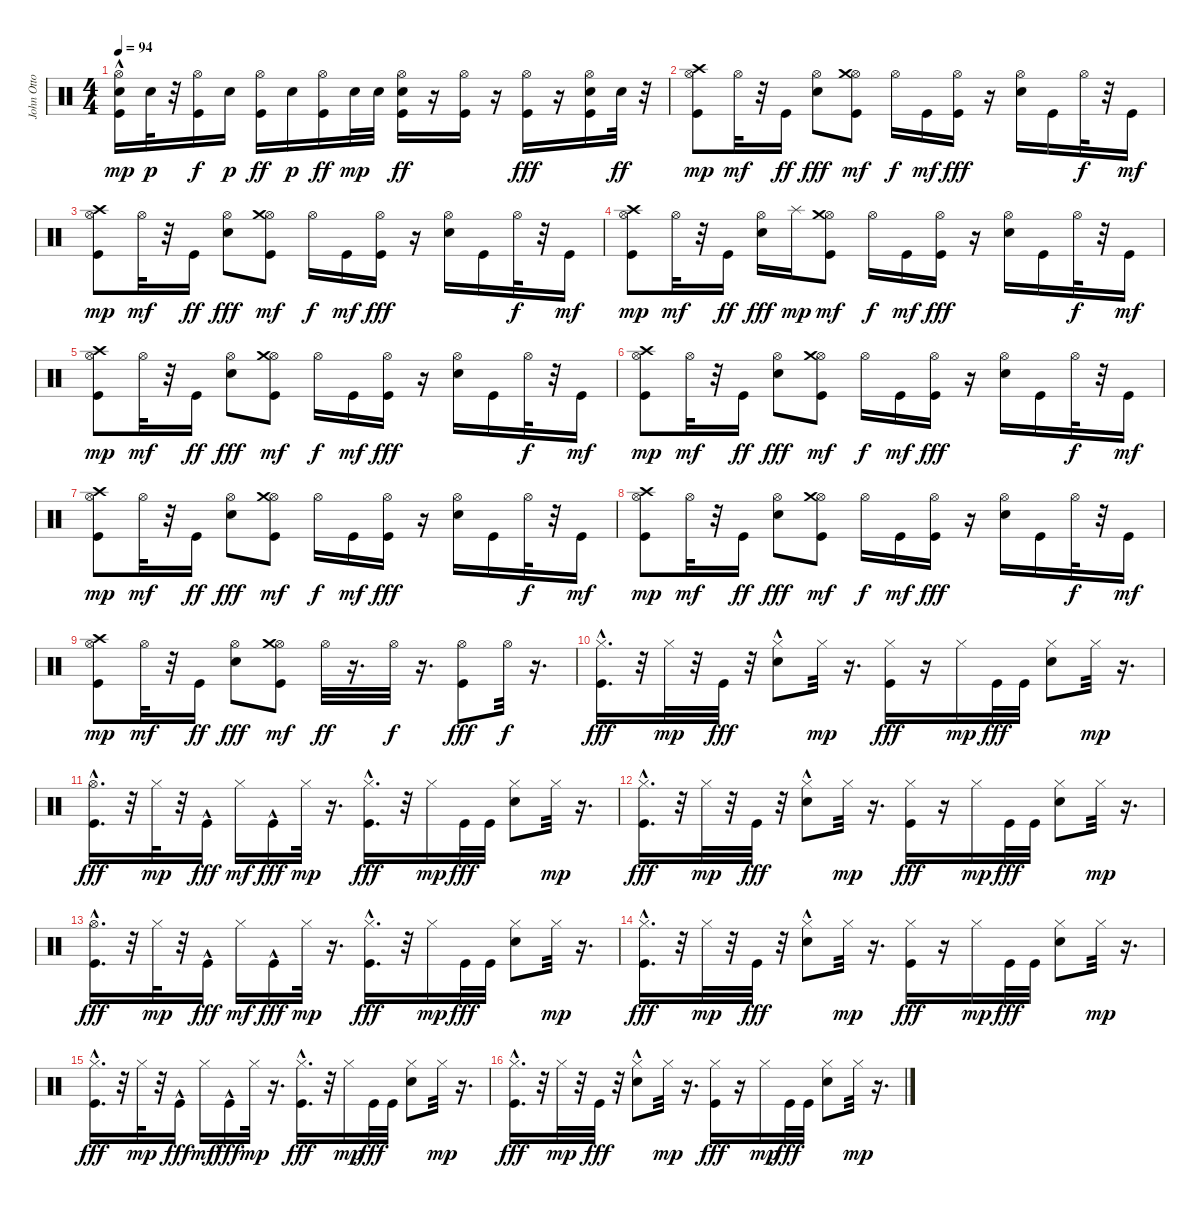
\track ("John Otto" "John Otto") {instrument percussion}
\staff {score}
\articulation defaults
\ts (4 4)
\tempo 94
\clef neutral
\ks c
("Hi-Hat (open)"{hac} "Snare (hit) 2" "Kick (hit)").16{dy mp} "Snare (hit) 2".32{dy p} r.32 ("Hi-Hat (open)" "Kick (hit)").16{dy f} "Snare (hit) 2".16{dy p} ("Hi-Hat (open)" "Kick (hit)").16{dy ff} "Snare (hit) 2".16{dy p} ("Hi-Hat (open)" "Kick (hit)").16{dy ff} "Snare (hit) 2".32{dy mp} "Snare (hit) 2".32 ("Hi-Hat (open)" "Snare (hit) 2" "Kick (hit)").16{dy ff} r.16 ("Hi-Hat (open)" "Kick (hit)").16 r.16 ("Hi-Hat (open)" "Kick (hit)").16{dy fff} r.16 ("Hi-Hat (open)" "Electric Snare (hit)" "Kick (hit)").16 "Electric Snare (hit)".32{dy ff} r.32 |
("Hi-Hat (open)" "Kick (hit)" "Crash high (hit)").8{dy mp} "Hi-Hat (open)".32{dy mf} r.32 "Kick (hit)".16{dy ff} ("Hi-Hat (open)" "Electric Snare (hit)").8{dy fff} ("Hi-Hat (open)" "Kick (hit)" "Crash medium (hit)").8{dy mf} "Hi-Hat (open)".16{dy f} "Kick (hit)".16{dy mf} ("Hi-Hat (open)" "Kick (hit)").16{dy fff} r.16 ("Hi-Hat (open)" "Electric Snare (hit)").16 "Kick (hit)".16 "Hi-Hat (open)".32{dy f} r.32 "Kick (hit)".16{dy mf} |
("Hi-Hat (open)" "Kick (hit)" "Crash high (hit)").8{dy mp} "Hi-Hat (open)".32{dy mf} r.32 "Kick (hit)".16{dy ff} ("Hi-Hat (open)" "Electric Snare (hit)").8{dy fff} ("Hi-Hat (open)" "Kick (hit)" "Crash medium (hit)").8{dy mf} "Hi-Hat (open)".16{dy f} "Kick (hit)".16{dy mf} ("Hi-Hat (open)" "Kick (hit)").16{dy fff} r.16 ("Hi-Hat (open)" "Electric Snare (hit)").16 "Kick (hit)".16 "Hi-Hat (open)".32{dy f} r.32 "Kick (hit)".16{dy mf} |
("Hi-Hat (open)" "Kick (hit)" "Crash high (hit)").8{dy mp} "Hi-Hat (open)".32{dy mf} r.32 "Kick (hit)".16{dy ff} ("Hi-Hat (open)" "Electric Snare (hit)").16{dy fff} "Splash (hit)".16{dy mp} ("Hi-Hat (open)" "Kick (hit)" "Crash medium (hit)").8{dy mf} "Hi-Hat (open)".16{dy f} "Kick (hit)".16{dy mf} ("Hi-Hat (open)" "Kick (hit)").16{dy fff} r.16 ("Hi-Hat (open)" "Electric Snare (hit)").16 "Kick (hit)".16 "Hi-Hat (open)".32{dy f} r.32 "Kick (hit)".16{dy mf} |
("Hi-Hat (open)" "Kick (hit)" "Crash high (hit)").8{dy mp} "Hi-Hat (open)".32{dy mf} r.32 "Kick (hit)".16{dy ff} ("Hi-Hat (open)" "Electric Snare (hit)").8{dy fff} ("Hi-Hat (open)" "Kick (hit)" "Crash medium (hit)").8{dy mf} "Hi-Hat (open)".16{dy f} "Kick (hit)".16{dy mf} ("Hi-Hat (open)" "Kick (hit)").16{dy fff} r.16 ("Hi-Hat (open)" "Electric Snare (hit)").16 "Kick (hit)".16 "Hi-Hat (open)".32{dy f} r.32 "Kick (hit)".16{dy mf} |
("Hi-Hat (open)" "Kick (hit)" "Crash high (hit)").8{dy mp} "Hi-Hat (open)".32{dy mf} r.32 "Kick (hit)".16{dy ff} ("Hi-Hat (open)" "Electric Snare (hit)").8{dy fff} ("Hi-Hat (open)" "Kick (hit)" "Crash medium (hit)").8{dy mf} "Hi-Hat (open)".16{dy f} "Kick (hit)".16{dy mf} ("Hi-Hat (open)" "Kick (hit)").16{dy fff} r.16 ("Hi-Hat (open)" "Electric Snare (hit)").16 "Kick (hit)".16 "Hi-Hat (open)".32{dy f} r.32 "Kick (hit)".16{dy mf} |
("Hi-Hat (open)" "Kick (hit)" "Crash high (hit)").8{dy mp} "Hi-Hat (open)".32{dy mf} r.32 "Kick (hit)".16{dy ff} ("Hi-Hat (open)" "Electric Snare (hit)").8{dy fff} ("Hi-Hat (open)" "Kick (hit)" "Crash medium (hit)").8{dy mf} "Hi-Hat (open)".16{dy f} "Kick (hit)".16{dy mf} ("Hi-Hat (open)" "Kick (hit)").16{dy fff} r.16 ("Hi-Hat (open)" "Electric Snare (hit)").16 "Kick (hit)".16 "Hi-Hat (open)".32{dy f} r.32 "Kick (hit)".16{dy mf} |
("Hi-Hat (open)" "Kick (hit)" "Crash high (hit)").8{dy mp} "Hi-Hat (open)".32{dy mf} r.32 "Kick (hit)".16{dy ff} ("Hi-Hat (open)" "Electric Snare (hit)").8{dy fff} ("Hi-Hat (open)" "Kick (hit)" "Crash medium (hit)").8{dy mf} "Hi-Hat (open)".16{dy f} "Kick (hit)".16{dy mf} ("Hi-Hat (open)" "Kick (hit)").16{dy fff} r.16 ("Hi-Hat (open)" "Electric Snare (hit)").16 "Kick (hit)".16 "Hi-Hat (open)".32{dy f} r.32 "Kick (hit)".16{dy mf} |
("Hi-Hat (open)" "Kick (hit)" "Crash high (hit)").8{dy mp} "Hi-Hat (open)".32{dy mf} r.32 "Kick (hit)".16{dy ff} ("Hi-Hat (open)" "Electric Snare (hit)").8{dy fff} ("Hi-Hat (open)" "Kick (hit)" "Crash medium (hit)").8{dy mf} "Hi-Hat (open)".32{dy ff} r.16{d} "Hi-Hat (open)".32{dy f} r.16{d} ("Hi-Hat (open)" "Kick (hit)").8{dy fff} "Hi-Hat (open)".32{dy f} r.16{d} |
("Hi-Hat (closed)"{hac} "Kick (hit)").16{d dy fff} r.32 "Hi-Hat (closed)".32{dy mp} r.32 "Kick (hit)".32{dy fff} r.32 ("Hi-Hat (closed)" "Electric Snare (hit)"{hac}).8 "Hi-Hat (closed)".32{dy mp} r.16{d} ("Hi-Hat (closed)" "Kick (hit)").16{dy fff} r.16 "Hi-Hat (closed)".16{dy mp} "Kick (hit)".32{dy fff} "Kick (hit)".32 ("Hi-Hat (closed)" "Electric Snare (hit)").8 "Hi-Hat (closed)".32{dy mp} r.16{d} |
("Hi-Hat (open)"{hac} "Kick (hit)").16{d dy fff} r.32 "Hi-Hat (closed)".32{dy mp} r.32 "Kick (hit)"{hac}.16{dy fff} "Hi-Hat (closed)".16{dy mf} "Kick (hit)"{hac}.16{dy fff} "Hi-Hat (closed)".32{dy mp} r.16{d} ("Hi-Hat (closed)" "Kick (hit)"{hac}).16{d dy fff} r.32 "Hi-Hat (closed)".16{dy mp} "Kick (hit)".32{dy fff} "Kick (hit)".32 ("Hi-Hat (closed)" "Electric Snare (hit)").8 "Hi-Hat (closed)".32{dy mp} r.16{d} |
("Hi-Hat (closed)"{hac} "Kick (hit)").16{d dy fff} r.32 "Hi-Hat (closed)".32{dy mp} r.32 "Kick (hit)".32{dy fff} r.32 ("Hi-Hat (closed)" "Electric Snare (hit)"{hac}).8 "Hi-Hat (closed)".32{dy mp} r.16{d} ("Hi-Hat (closed)" "Kick (hit)").16{dy fff} r.16 "Hi-Hat (closed)".16{dy mp} "Kick (hit)".32{dy fff} "Kick (hit)".32 ("Hi-Hat (closed)" "Electric Snare (hit)").8 "Hi-Hat (closed)".32{dy mp} r.16{d} |
("Hi-Hat (open)"{hac} "Kick (hit)").16{d dy fff} r.32 "Hi-Hat (closed)".32{dy mp} r.32 "Kick (hit)"{hac}.16{dy fff} "Hi-Hat (closed)".16{dy mf} "Kick (hit)"{hac}.16{dy fff} "Hi-Hat (closed)".32{dy mp} r.16{d} ("Hi-Hat (closed)" "Kick (hit)"{hac}).16{d dy fff} r.32 "Hi-Hat (closed)".16{dy mp} "Kick (hit)".32{dy fff} "Kick (hit)".32 ("Hi-Hat (closed)" "Electric Snare (hit)").8 "Hi-Hat (closed)".32{dy mp} r.16{d} |
("Hi-Hat (closed)"{hac} "Kick (hit)").16{d dy fff} r.32 "Hi-Hat (closed)".32{dy mp} r.32 "Kick (hit)".32{dy fff} r.32 ("Hi-Hat (closed)" "Electric Snare (hit)"{hac}).8 "Hi-Hat (closed)".32{dy mp} r.16{d} ("Hi-Hat (closed)" "Kick (hit)").16{dy fff} r.16 "Hi-Hat (closed)".16{dy mp} "Kick (hit)".32{dy fff} "Kick (hit)".32 ("Hi-Hat (closed)" "Electric Snare (hit)").8 "Hi-Hat (closed)".32{dy mp} r.16{d} |
("Hi-Hat (closed)"{hac} "Kick (hit)").16{d dy fff} r.32 "Hi-Hat (closed)".32{dy mp} r.32 "Kick (hit)"{hac}.16{dy fff} "Hi-Hat (closed)".16{dy mf} "Kick (hit)"{hac}.16{dy fff} "Hi-Hat (closed)".32{dy mp} r.16{d} ("Hi-Hat (closed)" "Kick (hit)"{hac}).16{d dy fff} r.32 "Hi-Hat (closed)".16{dy mp} "Kick (hit)".32{dy fff} "Kick (hit)".32 ("Hi-Hat (closed)" "Electric Snare (hit)").8 "Hi-Hat (closed)".32{dy mp} r.16{d} |
("Hi-Hat (closed)"{hac} "Kick (hit)").16{d dy fff} r.32 "Hi-Hat (closed)".32{dy mp} r.32 "Kick (hit)".32{dy fff} r.32 ("Hi-Hat (closed)" "Electric Snare (hit)"{hac}).8 "Hi-Hat (closed)".32{dy mp} r.16{d} ("Hi-Hat (closed)" "Kick (hit)").16{dy fff} r.16 "Hi-Hat (closed)".16{dy mp} "Kick (hit)".32{dy fff} "Kick (hit)".32 ("Hi-Hat (closed)" "Electric Snare (hit)").8 "Hi-Hat (closed)".32{dy mp} r.16{d}
